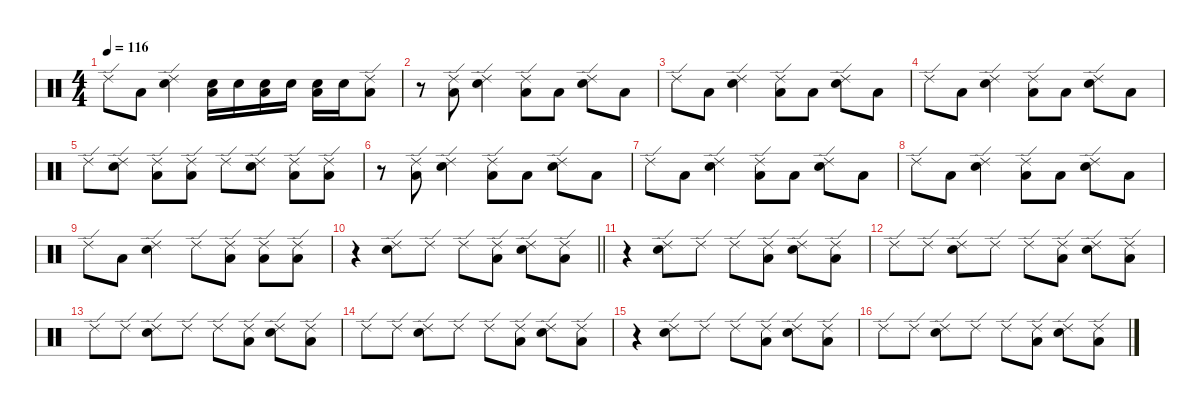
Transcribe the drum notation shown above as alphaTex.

\defaultSystemsLayout 4
\hideDynamics
\bracketExtendMode nobrackets
\singleTrackTrackNamePolicy hidden
\multiTrackTrackNamePolicy hidden
\otherSystemsTrackNameOrientation horizontal
\track ("Drums" "drm.") {instrument percussion}
\staff {score}
\articulation defaults
\ts (4 4)
\tempo 116
\clef neutral
\ks c "Ride (edge) 2".8{dy f beam Down} "Low Floor Tom (hit)".8{beam Down}
("Snare (hit) 2" "Ride (edge) 2").4{beam Down} ("Snare (hit) 2" "Low Floor Tom (hit)").16{beam Down} "Snare (hit) 2".16{beam Down} ("Snare (hit) 2" "Low Floor Tom (hit)").16{beam Down} "Snare (hit) 2".16{beam Down} ("Snare (hit) 2" "Low Floor Tom (hit)").16{beam Down} "Snare (hit) 2".16{beam Down} ("Low Floor Tom (hit)" "Ride (edge) 2").8{beam Down} |
r.8{beam Down} ("Low Floor Tom (hit)" "Ride (edge) 2").8{beam Down} ("Snare (hit) 2" "Ride (edge) 2").4{beam Down} ("Low Floor Tom (hit)" "Ride (edge) 2").8{beam Down} "Low Floor Tom (hit)".8{beam Down} ("Snare (hit) 2" "Ride (edge) 2").8{beam Down} "Low Floor Tom (hit)".8{beam Down} |
"Ride (edge) 2".8{beam Down} "Low Floor Tom (hit)".8{beam Down} ("Snare (hit) 2" "Ride (edge) 2").4{beam Down} ("Low Floor Tom (hit)" "Ride (edge) 2").8{beam Down} "Low Floor Tom (hit)".8{beam Down} ("Snare (hit) 2" "Ride (edge) 2").8{beam Down} "Low Floor Tom (hit)".8{beam Down} |
"Ride (edge) 2".8{beam Down} "Low Floor Tom (hit)".8{beam Down} ("Snare (hit) 2" "Ride (edge) 2").4{beam Down} ("Low Floor Tom (hit)" "Ride (edge) 2").8{beam Down} "Low Floor Tom (hit)".8{beam Down} ("Snare (hit) 2" "Ride (edge) 2").8{beam Down} "Low Floor Tom (hit)".8{beam Down} |
"Ride (edge) 2".8{beam Down} ("Snare (hit) 2" "Ride (edge) 2").8{beam Down} ("Low Floor Tom (hit)" "Ride (edge) 2").8{beam Down} ("Low Floor Tom (hit)" "Ride (edge) 2").8{beam Down} "Ride (edge) 2".8{beam Down} ("Snare (hit) 2" "Ride (edge) 2").8{beam Down} ("Low Floor Tom (hit)" "Ride (edge) 2").8{beam Down} ("Low Floor Tom (hit)" "Ride (edge) 2").8{beam Down} |
r.8{beam Down} ("Low Floor Tom (hit)" "Ride (edge) 2").8{beam Down} ("Snare (hit) 2" "Ride (edge) 2").4{beam Down} ("Low Floor Tom (hit)" "Ride (edge) 2").8{beam Down} "Low Floor Tom (hit)".8{beam Down} ("Snare (hit) 2" "Ride (edge) 2").8{beam Down} "Low Floor Tom (hit)".8{beam Down} |
"Ride (edge) 2".8{beam Down} "Low Floor Tom (hit)".8{beam Down} ("Snare (hit) 2" "Ride (edge) 2").4{beam Down} ("Low Floor Tom (hit)" "Ride (edge) 2").8{beam Down} "Low Floor Tom (hit)".8{beam Down} ("Snare (hit) 2" "Ride (edge) 2").8{beam Down} "Low Floor Tom (hit)".8{beam Down} |
"Ride (edge) 2".8{beam Down} "Low Floor Tom (hit)".8{beam Down} ("Snare (hit) 2" "Ride (edge) 2").4{beam Down} ("Low Floor Tom (hit)" "Ride (edge) 2").8{beam Down} "Low Floor Tom (hit)".8{beam Down} ("Snare (hit) 2" "Ride (edge) 2").8{beam Down} "Low Floor Tom (hit)".8{beam Down} |
"Ride (edge) 2".8{beam Down} "Low Floor Tom (hit)".8{beam Down} ("Snare (hit) 2" "Ride (edge) 2").4{beam Down} "Ride (edge) 2".8{beam Down} ("Low Floor Tom (hit)" "Ride (edge) 2").8{beam Down} ("Low Floor Tom (hit)" "Ride (edge) 2").8{beam Down} ("Low Floor Tom (hit)" "Ride (edge) 2").8{beam Down} |
\barLineRight lightlight
r.4{beam Down} ("Snare (hit) 2" "Ride (edge) 2").8{beam Down} "Ride (edge) 2".8{beam Down} "Ride (edge) 2".8{beam Down} ("Low Floor Tom (hit)" "Ride (edge) 2").8{beam Down} ("Snare (hit) 2" "Ride (edge) 2").8{beam Down} ("Low Floor Tom (hit)" "Ride (edge) 2").8{beam Down} |
r.4{beam Down} ("Snare (hit) 2" "Ride (edge) 2").8{beam Down} "Ride (edge) 2".8{beam Down} "Ride (edge) 2".8{beam Down} ("Low Floor Tom (hit)" "Ride (edge) 2").8{beam Down} ("Snare (hit) 2" "Ride (edge) 2").8{beam Down} ("Low Floor Tom (hit)" "Ride (edge) 2").8{beam Down} |
"Ride (edge) 2".8{beam Down} "Ride (edge) 2".8{beam Down} ("Snare (hit) 2" "Ride (edge) 2").8{beam Down} "Ride (edge) 2".8{beam Down} "Ride (edge) 2".8{beam Down} ("Low Floor Tom (hit)" "Ride (edge) 2").8{beam Down} ("Snare (hit) 2" "Ride (edge) 2").8{beam Down} ("Low Floor Tom (hit)" "Ride (edge) 2").8{beam Down} |
"Ride (edge) 2".8{beam Down} "Ride (edge) 2".8{beam Down} ("Snare (hit) 2" "Ride (edge) 2").8{beam Down} "Ride (edge) 2".8{beam Down} "Ride (edge) 2".8{beam Down} ("Low Floor Tom (hit)" "Ride (edge) 2").8{beam Down} ("Snare (hit) 2" "Ride (edge) 2").8{beam Down} ("Low Floor Tom (hit)" "Ride (edge) 2").8{beam Down} |
"Ride (edge) 2".8{beam Down} "Ride (edge) 2".8{beam Down} ("Snare (hit) 2" "Ride (edge) 2").8{beam Down} "Ride (edge) 2".8{beam Down} "Ride (edge) 2".8{beam Down} ("Low Floor Tom (hit)" "Ride (edge) 2").8{beam Down} ("Snare (hit) 2" "Ride (edge) 2").8{beam Down} ("Low Floor Tom (hit)" "Ride (edge) 2").8{beam Down} |
r.4{beam Down} ("Snare (hit) 2" "Ride (edge) 2").8{beam Down} "Ride (edge) 2".8{beam Down} "Ride (edge) 2".8{beam Down} ("Low Floor Tom (hit)" "Ride (edge) 2").8{beam Down} ("Snare (hit) 2" "Ride (edge) 2").8{beam Down} ("Low Floor Tom (hit)" "Ride (edge) 2").8{beam Down} |
"Ride (edge) 2".8{beam Down} "Ride (edge) 2".8{beam Down} ("Snare (hit) 2" "Ride (edge) 2").8{beam Down} "Ride (edge) 2".8{beam Down} "Ride (edge) 2".8{beam Down} ("Low Floor Tom (hit)" "Ride (edge) 2").8{beam Down} ("Snare (hit) 2" "Ride (edge) 2").8{beam Down} ("Low Floor Tom (hit)" "Ride (edge) 2").8{beam Down}
